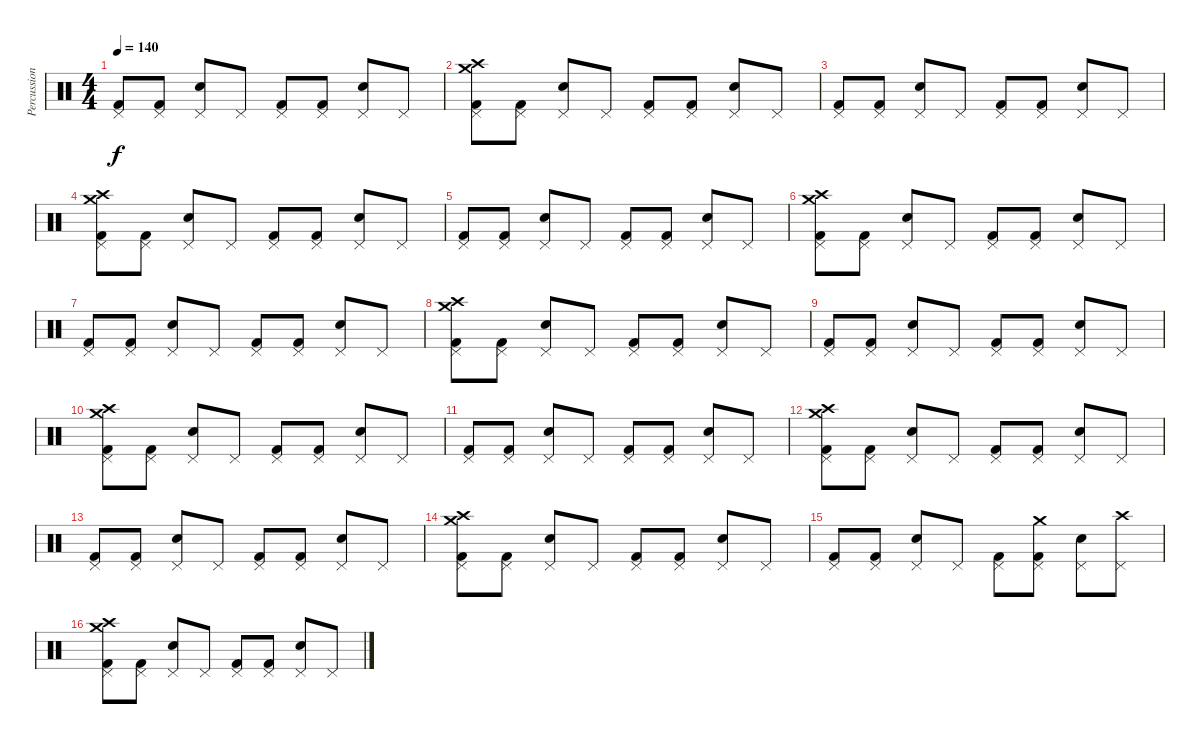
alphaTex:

\track ("Percussion" "Percussion") {instrument percussion}
\staff {score}
\articulation defaults
\ts (4 4)
\tempo 140
\clef neutral
\ks c
("Pedal Hi-Hat (hit)" "Kick (hit) 2").8{dy f} ("Pedal Hi-Hat (hit)" "Kick (hit) 2").8 ("Pedal Hi-Hat (hit)" "Electric Snare (hit)").8 "Pedal Hi-Hat (hit)".8 ("Pedal Hi-Hat (hit)" "Kick (hit) 2").8 ("Pedal Hi-Hat (hit)" "Kick (hit) 2").8 ("Pedal Hi-Hat (hit)" "Electric Snare (hit)").8 "Pedal Hi-Hat (hit)".8 |
("Pedal Hi-Hat (hit)" "Kick (hit) 2" "Crash high (hit)" "Crash medium (hit)").8 ("Pedal Hi-Hat (hit)" "Kick (hit) 2").8 ("Pedal Hi-Hat (hit)" "Electric Snare (hit)").8 "Pedal Hi-Hat (hit)".8 ("Pedal Hi-Hat (hit)" "Kick (hit) 2").8 ("Pedal Hi-Hat (hit)" "Kick (hit) 2").8 ("Pedal Hi-Hat (hit)" "Electric Snare (hit)").8 "Pedal Hi-Hat (hit)".8 |
("Pedal Hi-Hat (hit)" "Kick (hit) 2").8 ("Pedal Hi-Hat (hit)" "Kick (hit) 2").8 ("Pedal Hi-Hat (hit)" "Electric Snare (hit)").8 "Pedal Hi-Hat (hit)".8 ("Pedal Hi-Hat (hit)" "Kick (hit) 2").8 ("Pedal Hi-Hat (hit)" "Kick (hit) 2").8 ("Pedal Hi-Hat (hit)" "Electric Snare (hit)").8 "Pedal Hi-Hat (hit)".8 |
("Pedal Hi-Hat (hit)" "Kick (hit) 2" "Crash high (hit)" "Crash medium (hit)").8 ("Pedal Hi-Hat (hit)" "Kick (hit) 2").8 ("Pedal Hi-Hat (hit)" "Electric Snare (hit)").8 "Pedal Hi-Hat (hit)".8 ("Pedal Hi-Hat (hit)" "Kick (hit) 2").8 ("Pedal Hi-Hat (hit)" "Kick (hit) 2").8 ("Pedal Hi-Hat (hit)" "Electric Snare (hit)").8 "Pedal Hi-Hat (hit)".8 |
("Pedal Hi-Hat (hit)" "Kick (hit) 2").8 ("Pedal Hi-Hat (hit)" "Kick (hit) 2").8 ("Pedal Hi-Hat (hit)" "Electric Snare (hit)").8 "Pedal Hi-Hat (hit)".8 ("Pedal Hi-Hat (hit)" "Kick (hit) 2").8 ("Pedal Hi-Hat (hit)" "Kick (hit) 2").8 ("Pedal Hi-Hat (hit)" "Electric Snare (hit)").8 "Pedal Hi-Hat (hit)".8 |
("Pedal Hi-Hat (hit)" "Kick (hit) 2" "Crash high (hit)" "Crash medium (hit)").8 ("Pedal Hi-Hat (hit)" "Kick (hit) 2").8 ("Pedal Hi-Hat (hit)" "Electric Snare (hit)").8 "Pedal Hi-Hat (hit)".8 ("Pedal Hi-Hat (hit)" "Kick (hit) 2").8 ("Pedal Hi-Hat (hit)" "Kick (hit) 2").8 ("Pedal Hi-Hat (hit)" "Electric Snare (hit)").8 "Pedal Hi-Hat (hit)".8 |
("Pedal Hi-Hat (hit)" "Kick (hit) 2").8 ("Pedal Hi-Hat (hit)" "Kick (hit) 2").8 ("Pedal Hi-Hat (hit)" "Electric Snare (hit)").8 "Pedal Hi-Hat (hit)".8 ("Pedal Hi-Hat (hit)" "Kick (hit) 2").8 ("Pedal Hi-Hat (hit)" "Kick (hit) 2").8 ("Pedal Hi-Hat (hit)" "Electric Snare (hit)").8 "Pedal Hi-Hat (hit)".8 |
("Pedal Hi-Hat (hit)" "Kick (hit) 2" "Crash high (hit)" "Crash medium (hit)").8 ("Pedal Hi-Hat (hit)" "Kick (hit) 2").8 ("Pedal Hi-Hat (hit)" "Electric Snare (hit)").8 "Pedal Hi-Hat (hit)".8 ("Pedal Hi-Hat (hit)" "Kick (hit) 2").8 ("Pedal Hi-Hat (hit)" "Kick (hit) 2").8 ("Pedal Hi-Hat (hit)" "Electric Snare (hit)").8 "Pedal Hi-Hat (hit)".8 |
("Pedal Hi-Hat (hit)" "Kick (hit) 2").8 ("Pedal Hi-Hat (hit)" "Kick (hit) 2").8 ("Pedal Hi-Hat (hit)" "Electric Snare (hit)").8 "Pedal Hi-Hat (hit)".8 ("Pedal Hi-Hat (hit)" "Kick (hit) 2").8 ("Pedal Hi-Hat (hit)" "Kick (hit) 2").8 ("Pedal Hi-Hat (hit)" "Electric Snare (hit)").8 "Pedal Hi-Hat (hit)".8 |
("Pedal Hi-Hat (hit)" "Kick (hit) 2" "Crash high (hit)" "Crash medium (hit)").8 ("Pedal Hi-Hat (hit)" "Kick (hit) 2").8 ("Pedal Hi-Hat (hit)" "Electric Snare (hit)").8 "Pedal Hi-Hat (hit)".8 ("Pedal Hi-Hat (hit)" "Kick (hit) 2").8 ("Pedal Hi-Hat (hit)" "Kick (hit) 2").8 ("Pedal Hi-Hat (hit)" "Electric Snare (hit)").8 "Pedal Hi-Hat (hit)".8 |
("Pedal Hi-Hat (hit)" "Kick (hit) 2").8 ("Pedal Hi-Hat (hit)" "Kick (hit) 2").8 ("Pedal Hi-Hat (hit)" "Electric Snare (hit)").8 "Pedal Hi-Hat (hit)".8 ("Pedal Hi-Hat (hit)" "Kick (hit) 2").8 ("Pedal Hi-Hat (hit)" "Kick (hit) 2").8 ("Pedal Hi-Hat (hit)" "Electric Snare (hit)").8 "Pedal Hi-Hat (hit)".8 |
("Pedal Hi-Hat (hit)" "Kick (hit) 2" "Crash high (hit)" "Crash medium (hit)").8 ("Pedal Hi-Hat (hit)" "Kick (hit) 2").8 ("Pedal Hi-Hat (hit)" "Electric Snare (hit)").8 "Pedal Hi-Hat (hit)".8 ("Pedal Hi-Hat (hit)" "Kick (hit) 2").8 ("Pedal Hi-Hat (hit)" "Kick (hit) 2").8 ("Pedal Hi-Hat (hit)" "Electric Snare (hit)").8 "Pedal Hi-Hat (hit)".8 |
("Pedal Hi-Hat (hit)" "Kick (hit) 2").8 ("Pedal Hi-Hat (hit)" "Kick (hit) 2").8 ("Pedal Hi-Hat (hit)" "Electric Snare (hit)").8 "Pedal Hi-Hat (hit)".8 ("Pedal Hi-Hat (hit)" "Kick (hit) 2").8 ("Pedal Hi-Hat (hit)" "Kick (hit) 2").8 ("Pedal Hi-Hat (hit)" "Electric Snare (hit)").8 "Pedal Hi-Hat (hit)".8 |
("Pedal Hi-Hat (hit)" "Kick (hit) 2" "Crash high (hit)" "Crash medium (hit)").8 ("Pedal Hi-Hat (hit)" "Kick (hit) 2").8 ("Pedal Hi-Hat (hit)" "Electric Snare (hit)").8 "Pedal Hi-Hat (hit)".8 ("Pedal Hi-Hat (hit)" "Kick (hit) 2").8 ("Pedal Hi-Hat (hit)" "Kick (hit) 2").8 ("Pedal Hi-Hat (hit)" "Electric Snare (hit)").8 "Pedal Hi-Hat (hit)".8 |
("Pedal Hi-Hat (hit)" "Kick (hit) 2").8 ("Pedal Hi-Hat (hit)" "Kick (hit) 2").8 ("Pedal Hi-Hat (hit)" "Electric Snare (hit)").8 "Pedal Hi-Hat (hit)".8 ("Pedal Hi-Hat (hit)" "Kick (hit) 2").8 ("Pedal Hi-Hat (hit)" "Kick (hit) 2" "Crash medium (hit)").8 ("Pedal Hi-Hat (hit)" "Electric Snare (hit)").8 ("Pedal Hi-Hat (hit)" "Crash high (hit)").8 |
("Pedal Hi-Hat (hit)" "Kick (hit) 2" "Crash high (hit)" "Crash medium (hit)").8 ("Pedal Hi-Hat (hit)" "Kick (hit) 2").8 ("Pedal Hi-Hat (hit)" "Electric Snare (hit)").8 "Pedal Hi-Hat (hit)".8 ("Pedal Hi-Hat (hit)" "Kick (hit) 2").8 ("Pedal Hi-Hat (hit)" "Kick (hit) 2").8 ("Pedal Hi-Hat (hit)" "Electric Snare (hit)").8 "Pedal Hi-Hat (hit)".8
